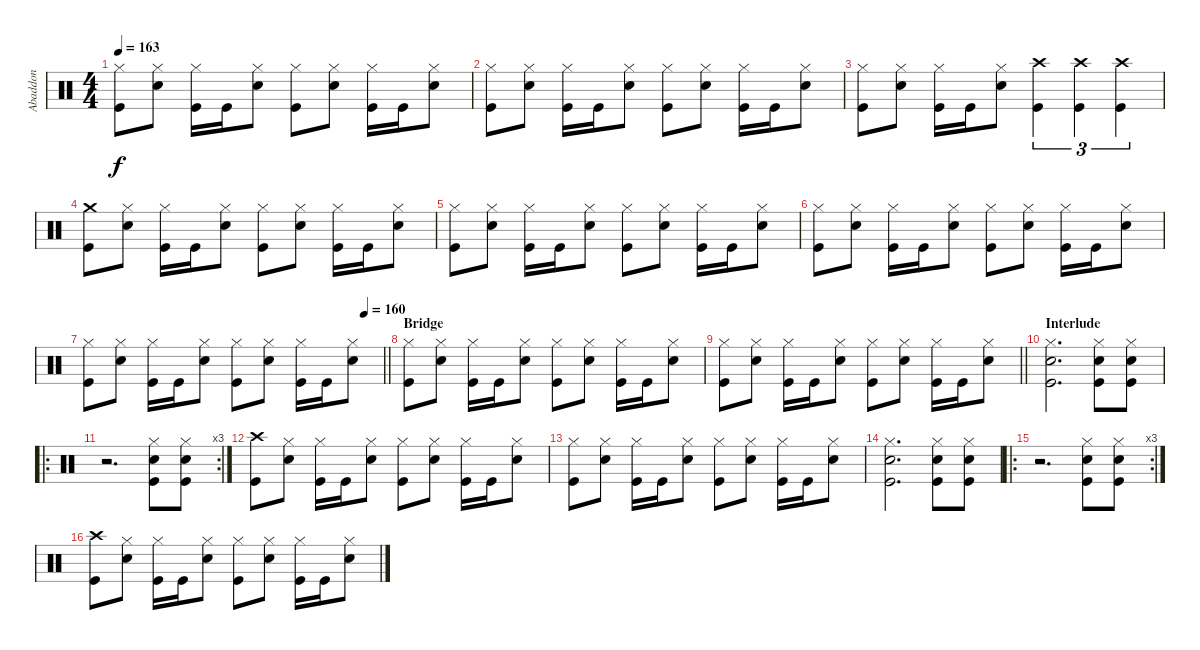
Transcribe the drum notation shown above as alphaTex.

\track ("Abaddon" "Abaddon") {instrument percussion}
\staff {score}
\articulation defaults
\ts (4 4)
\tempo 163
\clef neutral
\ks c
("Hi-Hat (closed)" "Kick (hit)").8{dy f} ("Hi-Hat (closed)" "Snare (hit) 2").8 ("Hi-Hat (closed)" "Kick (hit)").16 "Kick (hit)".16 ("Hi-Hat (closed)" "Snare (hit) 2").8 ("Hi-Hat (closed)" "Kick (hit)").8 ("Hi-Hat (closed)" "Snare (hit) 2").8 ("Hi-Hat (closed)" "Kick (hit)").16 "Kick (hit)".16 ("Hi-Hat (closed)" "Snare (hit) 2").8 |
("Hi-Hat (closed)" "Kick (hit)").8 ("Hi-Hat (closed)" "Snare (hit) 2").8 ("Hi-Hat (closed)" "Kick (hit)").16 "Kick (hit)".16 ("Hi-Hat (closed)" "Snare (hit) 2").8 ("Hi-Hat (closed)" "Kick (hit)").8 ("Hi-Hat (closed)" "Snare (hit) 2").8 ("Hi-Hat (closed)" "Kick (hit)").16 "Kick (hit)".16 ("Hi-Hat (closed)" "Snare (hit) 2").8 |
("Hi-Hat (closed)" "Kick (hit)").8 ("Hi-Hat (closed)" "Snare (hit) 2").8 ("Hi-Hat (closed)" "Kick (hit)").16 "Kick (hit)".16 ("Hi-Hat (closed)" "Snare (hit) 2").8 ("Crash high (hit)" "Kick (hit)").4{tu (3 2)} ("Crash high (hit)" "Kick (hit)").4{tu (3 2)} ("Crash high (hit)" "Kick (hit)").4{tu (3 2)} |
("Crash medium (hit)" "Kick (hit)").8 ("Hi-Hat (closed)" "Snare (hit) 2").8 ("Hi-Hat (closed)" "Kick (hit)").16 "Kick (hit)".16 ("Hi-Hat (closed)" "Snare (hit) 2").8 ("Hi-Hat (closed)" "Kick (hit)").8 ("Hi-Hat (closed)" "Snare (hit) 2").8 ("Hi-Hat (closed)" "Kick (hit)").16 "Kick (hit)".16 ("Hi-Hat (closed)" "Snare (hit) 2").8 |
("Hi-Hat (closed)" "Kick (hit)").8 ("Hi-Hat (closed)" "Snare (hit) 2").8 ("Hi-Hat (closed)" "Kick (hit)").16 "Kick (hit)".16 ("Hi-Hat (closed)" "Snare (hit) 2").8 ("Hi-Hat (closed)" "Kick (hit)").8 ("Hi-Hat (closed)" "Snare (hit) 2").8 ("Hi-Hat (closed)" "Kick (hit)").16 "Kick (hit)".16 ("Hi-Hat (closed)" "Snare (hit) 2").8 |
("Hi-Hat (closed)" "Kick (hit)").8 ("Hi-Hat (closed)" "Snare (hit) 2").8 ("Hi-Hat (closed)" "Kick (hit)").16 "Kick (hit)".16 ("Hi-Hat (closed)" "Snare (hit) 2").8 ("Hi-Hat (closed)" "Kick (hit)").8 ("Hi-Hat (closed)" "Snare (hit) 2").8 ("Hi-Hat (closed)" "Kick (hit)").16 "Kick (hit)".16 ("Hi-Hat (closed)" "Snare (hit) 2").8 |
\tempo (160 0.9375)
\barLineRight lightlight
("Hi-Hat (closed)" "Kick (hit)").8 ("Hi-Hat (closed)" "Snare (hit) 2").8 ("Hi-Hat (closed)" "Kick (hit)").16 "Kick (hit)".16 ("Hi-Hat (closed)" "Snare (hit) 2").8 ("Hi-Hat (closed)" "Kick (hit)").8 ("Hi-Hat (closed)" "Snare (hit) 2").8 ("Hi-Hat (closed)" "Kick (hit)").16 "Kick (hit)".16 ("Hi-Hat (closed)" "Snare (hit) 2").8 |
\section ("" "Bridge")
("Hi-Hat (closed)" "Kick (hit)").8 ("Hi-Hat (closed)" "Snare (hit) 2").8 ("Hi-Hat (closed)" "Kick (hit)").16 "Kick (hit)".16 ("Hi-Hat (closed)" "Snare (hit) 2").8 ("Hi-Hat (closed)" "Kick (hit)").8 ("Hi-Hat (closed)" "Snare (hit) 2").8 ("Hi-Hat (closed)" "Kick (hit)").16 "Kick (hit)".16 ("Hi-Hat (closed)" "Snare (hit) 2").8 |
\barLineRight lightlight
("Hi-Hat (closed)" "Kick (hit)").8 ("Hi-Hat (closed)" "Snare (hit) 2").8 ("Hi-Hat (closed)" "Kick (hit)").16 "Kick (hit)".16 ("Hi-Hat (closed)" "Snare (hit) 2").8 ("Hi-Hat (closed)" "Kick (hit)").8 ("Hi-Hat (closed)" "Snare (hit) 2").8 ("Hi-Hat (closed)" "Kick (hit)").16 "Kick (hit)".16 ("Hi-Hat (closed)" "Snare (hit) 2").8 |
\section ("" "Interlude")
("Hi-Hat (closed)" "Snare (hit) 2" "Kick (hit)").2{d} ("Hi-Hat (closed)" "Snare (hit) 2" "Kick (hit)").8 ("Hi-Hat (closed)" "Snare (hit) 2" "Kick (hit)").8 |
\ro
\rc 3
r.2{d} ("Hi-Hat (closed)" "Snare (hit) 2" "Kick (hit)").8 ("Hi-Hat (closed)" "Snare (hit) 2" "Kick (hit)").8 |
("Crash high (hit)" "Kick (hit)").8 ("Hi-Hat (closed)" "Snare (hit) 2").8 ("Hi-Hat (closed)" "Kick (hit)").16 "Kick (hit)".16 ("Hi-Hat (closed)" "Snare (hit) 2").8 ("Hi-Hat (closed)" "Kick (hit)").8 ("Hi-Hat (closed)" "Snare (hit) 2").8 ("Hi-Hat (closed)" "Kick (hit)").16 "Kick (hit)".16 ("Hi-Hat (closed)" "Snare (hit) 2").8 |
("Hi-Hat (closed)" "Kick (hit)").8 ("Hi-Hat (closed)" "Snare (hit) 2").8 ("Hi-Hat (closed)" "Kick (hit)").16 "Kick (hit)".16 ("Hi-Hat (closed)" "Snare (hit) 2").8 ("Hi-Hat (closed)" "Kick (hit)").8 ("Hi-Hat (closed)" "Snare (hit) 2").8 ("Hi-Hat (closed)" "Kick (hit)").16 "Kick (hit)".16 ("Hi-Hat (closed)" "Snare (hit) 2").8 |
("Hi-Hat (closed)" "Snare (hit) 2" "Kick (hit)").2{d} ("Hi-Hat (closed)" "Snare (hit) 2" "Kick (hit)").8 ("Hi-Hat (closed)" "Snare (hit) 2" "Kick (hit)").8 |
\ro
\rc 3
r.2{d} ("Hi-Hat (closed)" "Snare (hit) 2" "Kick (hit)").8 ("Hi-Hat (closed)" "Snare (hit) 2" "Kick (hit)").8 |
("Crash high (hit)" "Kick (hit)").8 ("Hi-Hat (closed)" "Snare (hit) 2").8 ("Hi-Hat (closed)" "Kick (hit)").16 "Kick (hit)".16 ("Hi-Hat (closed)" "Snare (hit) 2").8 ("Hi-Hat (closed)" "Kick (hit)").8 ("Hi-Hat (closed)" "Snare (hit) 2").8 ("Hi-Hat (closed)" "Kick (hit)").16 "Kick (hit)".16 ("Hi-Hat (closed)" "Snare (hit) 2").8
